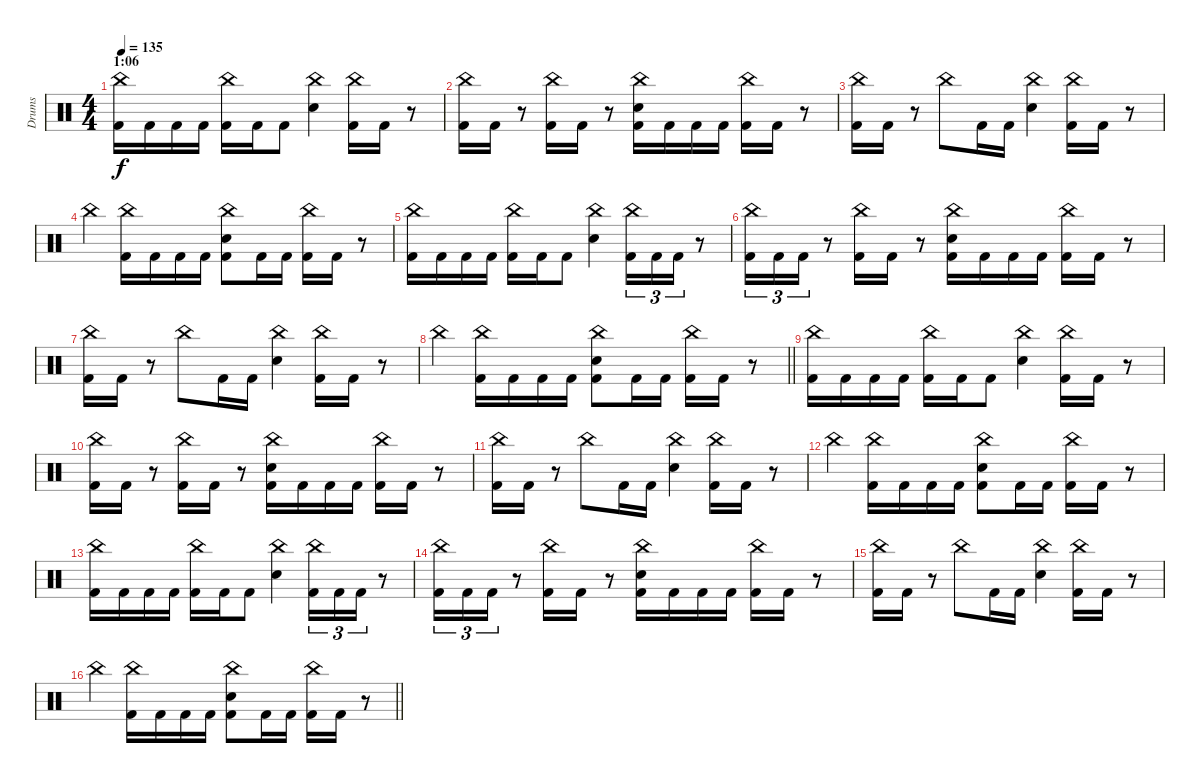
\track ("Drums" "Drums") {instrument percussion}
\staff {score}
\articulation defaults
\ts (4 4)
\section ("" "1:06")
\tempo 135
\clef neutral
\ks c
("China (hit)" "Kick (hit) 2").16{dy f} "Kick (hit) 2".16 "Kick (hit) 2".16 "Kick (hit) 2".16 ("China (hit)" "Kick (hit) 2").16 "Kick (hit) 2".16 "Kick (hit) 2".8 ("China (hit)" "Electric Snare (hit)").4 ("China (hit)" "Kick (hit) 2").16 "Kick (hit) 2".16 r.8 |
("China (hit)" "Kick (hit) 2").16 "Kick (hit) 2".16 r.8 ("China (hit)" "Kick (hit) 2").16 "Kick (hit) 2".16 r.8 ("China (hit)" "Electric Snare (hit)" "Kick (hit) 2").16 "Kick (hit) 2".16 "Kick (hit) 2".16 "Kick (hit) 2".16 ("China (hit)" "Kick (hit) 2").16 "Kick (hit) 2".16 r.8 |
("China (hit)" "Kick (hit) 2").16 "Kick (hit) 2".16 r.8 "China (hit)".8 "Kick (hit) 2".16 "Kick (hit) 2".16 ("China (hit)" "Electric Snare (hit)").4 ("China (hit)" "Kick (hit) 2").16 "Kick (hit) 2".16 r.8 |
"China (hit)".4 ("China (hit)" "Kick (hit) 2").16 "Kick (hit) 2".16 "Kick (hit) 2".16 "Kick (hit) 2".16 ("China (hit)" "Electric Snare (hit)" "Kick (hit) 2").8 "Kick (hit) 2".16 "Kick (hit) 2".16 ("China (hit)" "Kick (hit) 2").16 "Kick (hit) 2".16 r.8 |
("China (hit)" "Kick (hit) 2").16 "Kick (hit) 2".16 "Kick (hit) 2".16 "Kick (hit) 2".16 ("China (hit)" "Kick (hit) 2").16 "Kick (hit) 2".16 "Kick (hit) 2".8 ("China (hit)" "Electric Snare (hit)").4 ("China (hit)" "Kick (hit) 2").16{tu (3 2)} "Kick (hit) 2".16{tu (3 2)} "Kick (hit) 2".16{tu (3 2)} r.8 |
("China (hit)" "Kick (hit) 2").16{tu (3 2)} "Kick (hit) 2".16{tu (3 2)} "Kick (hit) 2".16{tu (3 2)} r.8 ("China (hit)" "Kick (hit) 2").16 "Kick (hit) 2".16 r.8 ("China (hit)" "Electric Snare (hit)" "Kick (hit) 2").16 "Kick (hit) 2".16 "Kick (hit) 2".16 "Kick (hit) 2".16 ("China (hit)" "Kick (hit) 2").16 "Kick (hit) 2".16 r.8 |
("China (hit)" "Kick (hit) 2").16 "Kick (hit) 2".16 r.8 "China (hit)".8 "Kick (hit) 2".16 "Kick (hit) 2".16 ("China (hit)" "Electric Snare (hit)").4 ("China (hit)" "Kick (hit) 2").16 "Kick (hit) 2".16 r.8 |
\barLineRight lightlight "China (hit)".4
("China (hit)" "Kick (hit) 2").16 "Kick (hit) 2".16 "Kick (hit) 2".16 "Kick (hit) 2".16 ("China (hit)" "Electric Snare (hit)" "Kick (hit) 2").8 "Kick (hit) 2".16 "Kick (hit) 2".16 ("China (hit)" "Kick (hit) 2").16 "Kick (hit) 2".16 r.8 |
("China (hit)" "Kick (hit) 2").16 "Kick (hit) 2".16 "Kick (hit) 2".16 "Kick (hit) 2".16 ("China (hit)" "Kick (hit) 2").16 "Kick (hit) 2".16 "Kick (hit) 2".8 ("China (hit)" "Electric Snare (hit)").4 ("China (hit)" "Kick (hit) 2").16 "Kick (hit) 2".16 r.8 |
("China (hit)" "Kick (hit) 2").16 "Kick (hit) 2".16 r.8 ("China (hit)" "Kick (hit) 2").16 "Kick (hit) 2".16 r.8 ("China (hit)" "Electric Snare (hit)" "Kick (hit) 2").16 "Kick (hit) 2".16 "Kick (hit) 2".16 "Kick (hit) 2".16 ("China (hit)" "Kick (hit) 2").16 "Kick (hit) 2".16 r.8 |
("China (hit)" "Kick (hit) 2").16 "Kick (hit) 2".16 r.8 "China (hit)".8 "Kick (hit) 2".16 "Kick (hit) 2".16 ("China (hit)" "Electric Snare (hit)").4 ("China (hit)" "Kick (hit) 2").16 "Kick (hit) 2".16 r.8 |
"China (hit)".4 ("China (hit)" "Kick (hit) 2").16 "Kick (hit) 2".16 "Kick (hit) 2".16 "Kick (hit) 2".16 ("China (hit)" "Electric Snare (hit)" "Kick (hit) 2").8 "Kick (hit) 2".16 "Kick (hit) 2".16 ("China (hit)" "Kick (hit) 2").16 "Kick (hit) 2".16 r.8 |
("China (hit)" "Kick (hit) 2").16 "Kick (hit) 2".16 "Kick (hit) 2".16 "Kick (hit) 2".16 ("China (hit)" "Kick (hit) 2").16 "Kick (hit) 2".16 "Kick (hit) 2".8 ("China (hit)" "Electric Snare (hit)").4 ("China (hit)" "Kick (hit) 2").16{tu (3 2)} "Kick (hit) 2".16{tu (3 2)} "Kick (hit) 2".16{tu (3 2)} r.8 |
("China (hit)" "Kick (hit) 2").16{tu (3 2)} "Kick (hit) 2".16{tu (3 2)} "Kick (hit) 2".16{tu (3 2)} r.8 ("China (hit)" "Kick (hit) 2").16 "Kick (hit) 2".16 r.8 ("China (hit)" "Electric Snare (hit)" "Kick (hit) 2").16 "Kick (hit) 2".16 "Kick (hit) 2".16 "Kick (hit) 2".16 ("China (hit)" "Kick (hit) 2").16 "Kick (hit) 2".16 r.8 |
("China (hit)" "Kick (hit) 2").16 "Kick (hit) 2".16 r.8 "China (hit)".8 "Kick (hit) 2".16 "Kick (hit) 2".16 ("China (hit)" "Electric Snare (hit)").4 ("China (hit)" "Kick (hit) 2").16 "Kick (hit) 2".16 r.8 |
\barLineRight lightlight "China (hit)".4
("China (hit)" "Kick (hit) 2").16 "Kick (hit) 2".16 "Kick (hit) 2".16 "Kick (hit) 2".16 ("China (hit)" "Electric Snare (hit)" "Kick (hit) 2").8 "Kick (hit) 2".16 "Kick (hit) 2".16 ("China (hit)" "Kick (hit) 2").16 "Kick (hit) 2".16 r.8
